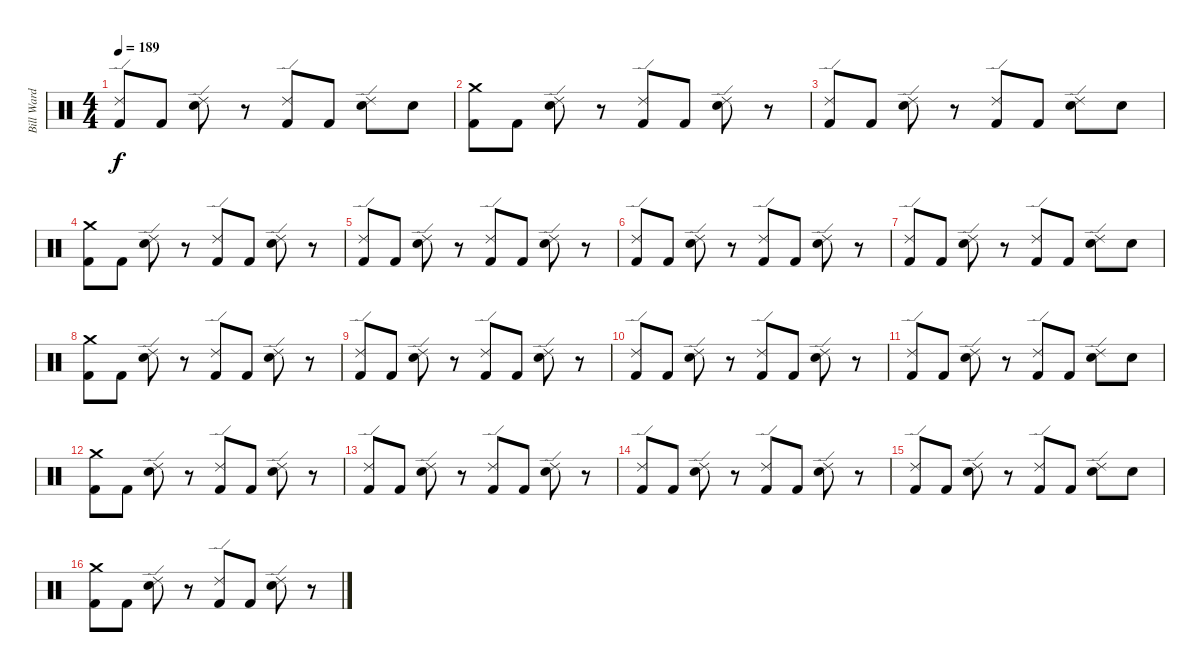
\track ("Bill Ward" "Bill Ward") {instrument percussion}
\staff {score}
\articulation defaults
\ts (4 4)
\tempo 189
\clef neutral
\ks c
("Ride (edge) 2" "Kick (hit) 2").8{dy f} "Kick (hit) 2".8 ("Electric Snare (hit)" "Ride (edge) 2").8 r.8 ("Ride (edge) 2" "Kick (hit) 2").8 "Kick (hit) 2".8 ("Ride (edge) 2" "Electric Snare (hit)").8 "Electric Snare (hit)".8 |
("Crash medium (hit)" "Kick (hit) 2").8 "Kick (hit) 2".8 ("Ride (edge) 2" "Electric Snare (hit)").8 r.8 ("Kick (hit) 2" "Ride (edge) 2").8 "Kick (hit) 2".8 ("Ride (edge) 2" "Electric Snare (hit)").8 r.8 |
("Kick (hit) 2" "Ride (edge) 2").8 "Kick (hit) 2".8 ("Ride (edge) 2" "Electric Snare (hit)").8 r.8 ("Ride (edge) 2" "Kick (hit) 2").8 "Kick (hit) 2".8 ("Electric Snare (hit)" "Ride (edge) 2").8 "Electric Snare (hit)".8 |
("Kick (hit) 2" "Crash medium (hit)").8 "Kick (hit) 2".8 ("Electric Snare (hit)" "Ride (edge) 2").8 r.8 ("Ride (edge) 2" "Kick (hit) 2").8 "Kick (hit) 2".8 ("Electric Snare (hit)" "Ride (edge) 2").8 r.8 |
("Ride (edge) 2" "Kick (hit) 2").8 "Kick (hit) 2".8 ("Electric Snare (hit)" "Ride (edge) 2").8 r.8 ("Ride (edge) 2" "Kick (hit) 2").8 "Kick (hit) 2".8 ("Electric Snare (hit)" "Ride (edge) 2").8 r.8 |
("Ride (edge) 2" "Kick (hit) 2").8 "Kick (hit) 2".8 ("Electric Snare (hit)" "Ride (edge) 2").8 r.8 ("Kick (hit) 2" "Ride (edge) 2").8 "Kick (hit) 2".8 ("Ride (edge) 2" "Electric Snare (hit)").8 r.8 |
("Ride (edge) 2" "Kick (hit) 2").8 "Kick (hit) 2".8 ("Ride (edge) 2" "Electric Snare (hit)").8 r.8 ("Ride (edge) 2" "Kick (hit) 2").8 "Kick (hit) 2".8 ("Ride (edge) 2" "Electric Snare (hit)").8 "Electric Snare (hit)".8 |
("Kick (hit) 2" "Crash medium (hit)").8 "Kick (hit) 2".8 ("Ride (edge) 2" "Electric Snare (hit)").8 r.8 ("Kick (hit) 2" "Ride (edge) 2").8 "Kick (hit) 2".8 ("Electric Snare (hit)" "Ride (edge) 2").8 r.8 |
("Kick (hit) 2" "Ride (edge) 2").8 "Kick (hit) 2".8 ("Electric Snare (hit)" "Ride (edge) 2").8 r.8 ("Kick (hit) 2" "Ride (edge) 2").8 "Kick (hit) 2".8 ("Electric Snare (hit)" "Ride (edge) 2").8 r.8 |
("Ride (edge) 2" "Kick (hit) 2").8 "Kick (hit) 2".8 ("Ride (edge) 2" "Electric Snare (hit)").8 r.8 ("Ride (edge) 2" "Kick (hit) 2").8 "Kick (hit) 2".8 ("Ride (edge) 2" "Electric Snare (hit)").8 r.8 |
("Ride (edge) 2" "Kick (hit) 2").8 "Kick (hit) 2".8 ("Ride (edge) 2" "Electric Snare (hit)").8 r.8 ("Kick (hit) 2" "Ride (edge) 2").8 "Kick (hit) 2".8 ("Ride (edge) 2" "Electric Snare (hit)").8 "Electric Snare (hit)".8 |
("Kick (hit) 2" "Crash medium (hit)").8 "Kick (hit) 2".8 ("Ride (edge) 2" "Electric Snare (hit)").8 r.8 ("Kick (hit) 2" "Ride (edge) 2").8 "Kick (hit) 2".8 ("Ride (edge) 2" "Electric Snare (hit)").8 r.8 |
("Ride (edge) 2" "Kick (hit) 2").8 "Kick (hit) 2".8 ("Ride (edge) 2" "Electric Snare (hit)").8 r.8 ("Ride (edge) 2" "Kick (hit) 2").8 "Kick (hit) 2".8 ("Electric Snare (hit)" "Ride (edge) 2").8 r.8 |
("Kick (hit) 2" "Ride (edge) 2").8 "Kick (hit) 2".8 ("Ride (edge) 2" "Electric Snare (hit)").8 r.8 ("Kick (hit) 2" "Ride (edge) 2").8 "Kick (hit) 2".8 ("Ride (edge) 2" "Electric Snare (hit)").8 r.8 |
("Kick (hit) 2" "Ride (edge) 2").8 "Kick (hit) 2".8 ("Electric Snare (hit)" "Ride (edge) 2").8 r.8 ("Ride (edge) 2" "Kick (hit) 2").8 "Kick (hit) 2".8 ("Ride (edge) 2" "Electric Snare (hit)").8 "Electric Snare (hit)".8 |
("Crash medium (hit)" "Kick (hit) 2").8 "Kick (hit) 2".8 ("Electric Snare (hit)" "Ride (edge) 2").8 r.8 ("Ride (edge) 2" "Kick (hit) 2").8 "Kick (hit) 2".8 ("Ride (edge) 2" "Electric Snare (hit)").8 r.8
